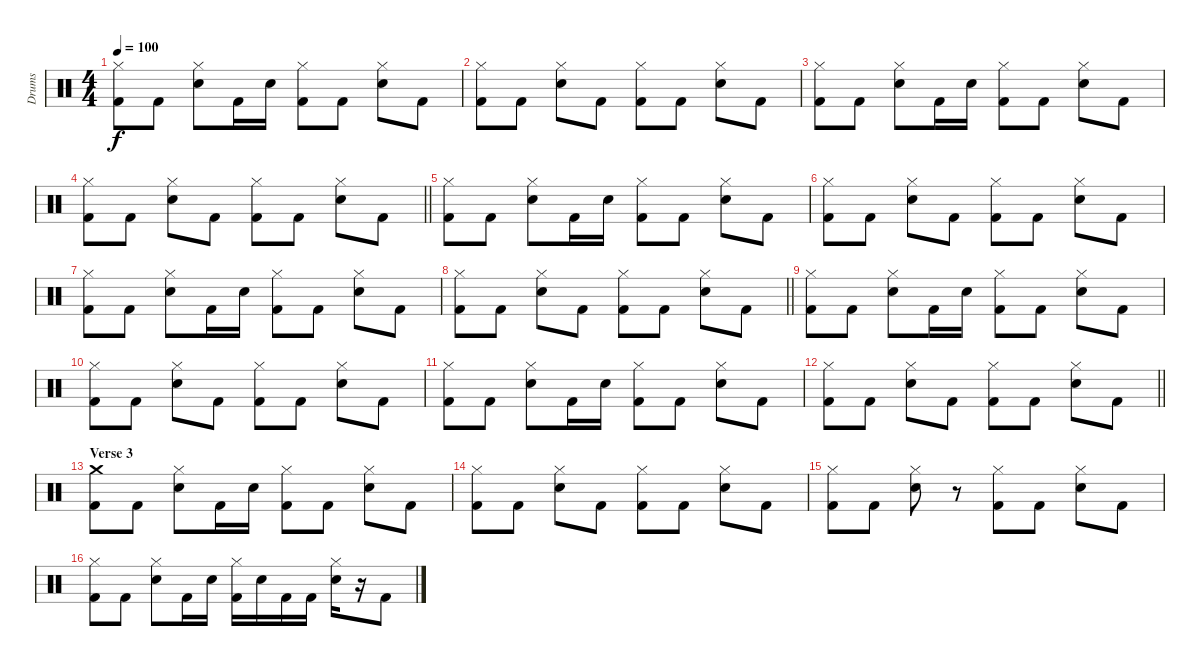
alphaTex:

\track ("Drums" "Drums") {instrument percussion}
\staff {score}
\articulation defaults
\ts (4 4)
\tempo 100
\clef neutral
\ks c
("Hi-Hat (closed)" "Kick (hit) 2").8{dy f} "Kick (hit) 2".8 ("Hi-Hat (closed)" "Snare (hit) 2").8 "Kick (hit) 2".16 "Snare (hit) 2".16 ("Hi-Hat (closed)" "Kick (hit) 2").8 "Kick (hit) 2".8 ("Hi-Hat (closed)" "Snare (hit) 2").8 "Kick (hit) 2".8 |
("Hi-Hat (closed)" "Kick (hit) 2").8 "Kick (hit) 2".8 ("Hi-Hat (closed)" "Snare (hit) 2").8 "Kick (hit) 2".8 ("Hi-Hat (closed)" "Kick (hit) 2").8 "Kick (hit) 2".8 ("Hi-Hat (closed)" "Snare (hit) 2").8 "Kick (hit) 2".8 |
("Hi-Hat (closed)" "Kick (hit) 2").8 "Kick (hit) 2".8 ("Hi-Hat (closed)" "Snare (hit) 2").8 "Kick (hit) 2".16 "Snare (hit) 2".16 ("Hi-Hat (closed)" "Kick (hit) 2").8 "Kick (hit) 2".8 ("Hi-Hat (closed)" "Snare (hit) 2").8 "Kick (hit) 2".8 |
\barLineRight lightlight
("Hi-Hat (closed)" "Kick (hit) 2").8 "Kick (hit) 2".8 ("Hi-Hat (closed)" "Snare (hit) 2").8 "Kick (hit) 2".8 ("Hi-Hat (closed)" "Kick (hit) 2").8 "Kick (hit) 2".8 ("Hi-Hat (closed)" "Snare (hit) 2").8 "Kick (hit) 2".8 |
("Hi-Hat (closed)" "Kick (hit) 2").8 "Kick (hit) 2".8 ("Hi-Hat (closed)" "Snare (hit) 2").8 "Kick (hit) 2".16 "Snare (hit) 2".16 ("Hi-Hat (closed)" "Kick (hit) 2").8 "Kick (hit) 2".8 ("Hi-Hat (closed)" "Snare (hit) 2").8 "Kick (hit) 2".8 |
("Hi-Hat (closed)" "Kick (hit) 2").8 "Kick (hit) 2".8 ("Hi-Hat (closed)" "Snare (hit) 2").8 "Kick (hit) 2".8 ("Hi-Hat (closed)" "Kick (hit) 2").8 "Kick (hit) 2".8 ("Hi-Hat (closed)" "Snare (hit) 2").8 "Kick (hit) 2".8 |
("Hi-Hat (closed)" "Kick (hit) 2").8 "Kick (hit) 2".8 ("Hi-Hat (closed)" "Snare (hit) 2").8 "Kick (hit) 2".16 "Snare (hit) 2".16 ("Hi-Hat (closed)" "Kick (hit) 2").8 "Kick (hit) 2".8 ("Hi-Hat (closed)" "Snare (hit) 2").8 "Kick (hit) 2".8 |
\barLineRight lightlight
("Hi-Hat (closed)" "Kick (hit) 2").8 "Kick (hit) 2".8 ("Hi-Hat (closed)" "Snare (hit) 2").8 "Kick (hit) 2".8 ("Hi-Hat (closed)" "Kick (hit) 2").8 "Kick (hit) 2".8 ("Hi-Hat (closed)" "Snare (hit) 2").8 "Kick (hit) 2".8 |
("Hi-Hat (closed)" "Kick (hit) 2").8 "Kick (hit) 2".8 ("Hi-Hat (closed)" "Snare (hit) 2").8 "Kick (hit) 2".16 "Snare (hit) 2".16 ("Hi-Hat (closed)" "Kick (hit) 2").8 "Kick (hit) 2".8 ("Hi-Hat (closed)" "Snare (hit) 2").8 "Kick (hit) 2".8 |
("Hi-Hat (closed)" "Kick (hit) 2").8 "Kick (hit) 2".8 ("Hi-Hat (closed)" "Snare (hit) 2").8 "Kick (hit) 2".8 ("Hi-Hat (closed)" "Kick (hit) 2").8 "Kick (hit) 2".8 ("Hi-Hat (closed)" "Snare (hit) 2").8 "Kick (hit) 2".8 |
("Hi-Hat (closed)" "Kick (hit) 2").8 "Kick (hit) 2".8 ("Hi-Hat (closed)" "Snare (hit) 2").8 "Kick (hit) 2".16 "Snare (hit) 2".16 ("Hi-Hat (closed)" "Kick (hit) 2").8 "Kick (hit) 2".8 ("Hi-Hat (closed)" "Snare (hit) 2").8 "Kick (hit) 2".8 |
\barLineRight lightlight
("Hi-Hat (closed)" "Kick (hit) 2").8 "Kick (hit) 2".8 ("Hi-Hat (closed)" "Snare (hit) 2").8 "Kick (hit) 2".8 ("Hi-Hat (closed)" "Kick (hit) 2").8 "Kick (hit) 2".8 ("Hi-Hat (closed)" "Snare (hit) 2").8 "Kick (hit) 2".8 |
\section ("" "Verse 3")
("Crash medium (hit)" "Kick (hit) 2").8 "Kick (hit) 2".8 ("Hi-Hat (closed)" "Snare (hit) 2").8 "Kick (hit) 2".16 "Snare (hit) 2".16 ("Hi-Hat (closed)" "Kick (hit) 2").8 "Kick (hit) 2".8 ("Hi-Hat (closed)" "Snare (hit) 2").8 "Kick (hit) 2".8 |
("Hi-Hat (closed)" "Kick (hit) 2").8 "Kick (hit) 2".8 ("Hi-Hat (closed)" "Snare (hit) 2").8 "Kick (hit) 2".8 ("Hi-Hat (closed)" "Kick (hit) 2").8 "Kick (hit) 2".8 ("Hi-Hat (closed)" "Snare (hit) 2").8 "Kick (hit) 2".8 |
("Hi-Hat (closed)" "Kick (hit) 2").8 "Kick (hit) 2".8 ("Hi-Hat (closed)" "Snare (hit) 2").8 r.8 ("Hi-Hat (closed)" "Kick (hit) 2").8 "Kick (hit) 2".8 ("Hi-Hat (closed)" "Snare (hit) 2").8 "Kick (hit) 2".8 |
("Hi-Hat (closed)" "Kick (hit) 2").8 "Kick (hit) 2".8 ("Hi-Hat (closed)" "Snare (hit) 2").8 "Kick (hit) 2".16 "Snare (hit) 2".16 ("Hi-Hat (closed)" "Kick (hit) 2").16 "Snare (hit) 2".16 "Kick (hit) 2".16 "Kick (hit) 2".16 ("Hi-Hat (closed)" "Snare (hit) 2").16 r.16 "Kick (hit) 2".8
